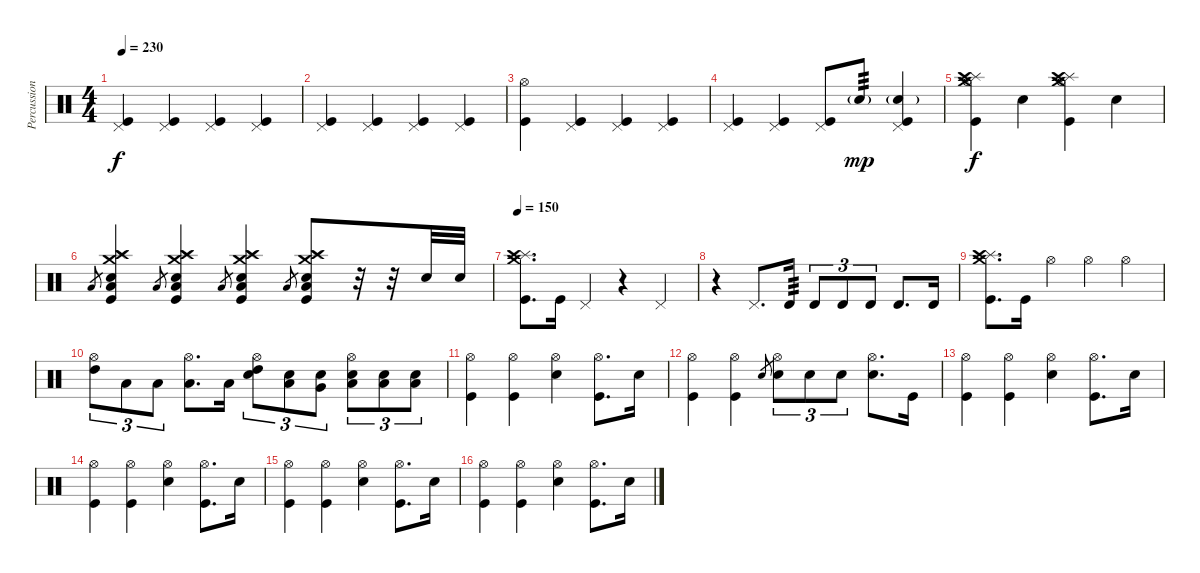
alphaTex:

\track ("Percussion" "Percussion") {instrument percussion}
\staff
\articulation defaults
\ts (4 4)
\tempo 230
\clef neutral
\ks c
("Pedal Hi-Hat (hit)" "Kick (hit)").4{dy f} ("Pedal Hi-Hat (hit)" "Kick (hit)").4 ("Pedal Hi-Hat (hit)" "Kick (hit)").4 ("Pedal Hi-Hat (hit)" "Kick (hit)").4 |
("Pedal Hi-Hat (hit)" "Kick (hit)").4 ("Pedal Hi-Hat (hit)" "Kick (hit)").4 ("Pedal Hi-Hat (hit)" "Kick (hit)").4 ("Pedal Hi-Hat (hit)" "Kick (hit)").4 |
("Hi-Hat (open)" "Kick (hit)").4 ("Pedal Hi-Hat (hit)" "Kick (hit)").4 ("Pedal Hi-Hat (hit)" "Kick (hit)").4 ("Pedal Hi-Hat (hit)" "Kick (hit)").4 |
("Pedal Hi-Hat (hit)" "Kick (hit)").4 ("Pedal Hi-Hat (hit)" "Kick (hit)").4 ("Pedal Hi-Hat (hit)" "Kick (hit)").8 "Electric Snare (hit)"{g}.8{tp 3 dy mp} ("Pedal Hi-Hat (hit)" "Electric Snare (hit)"{g} "Kick (hit)").4 |
("Crash medium (hit)" "Splash (hit)" "Crash high (hit)" "Hi-Hat (open)" "Kick (hit)").4{dy f} "Electric Snare (hit)".4 ("Crash medium (hit)" "Splash (hit)" "Crash high (hit)" "Hi-Hat (open)" "Kick (hit)").4 "Electric Snare (hit)".4 |
"Low Tom (hit)".8{gr} ("Crash medium (hit)" "Splash (hit)" "Crash high (hit)" "Electric Snare (hit)" "Low Tom (hit)" "Kick (hit)").4 "Low Tom (hit)".8{gr} ("Crash medium (hit)" "Splash (hit)" "Crash high (hit)" "Electric Snare (hit)" "Low Tom (hit)" "Kick (hit)").4 "Low Tom (hit)".8{gr} ("Crash medium (hit)" "Splash (hit)" "Crash high (hit)" "Electric Snare (hit)" "Low Tom (hit)" "Kick (hit)").4 "Low Tom (hit)".8{gr} ("Crash medium (hit)" "Splash (hit)" "Crash high (hit)" "Electric Snare (hit)" "Low Tom (hit)" "Kick (hit)").8 r.32 r.32 "Electric Snare (hit)".32 "Electric Snare (hit)".32 |
\tempo 150
("Crash medium (hit)" "Splash (hit)" "Crash high (hit)" "Kick (hit)").8{d} "Kick (hit)".16 "Pedal Hi-Hat (hit)".4 r.4 "Pedal Hi-Hat (hit)".4 |
r.4 "Pedal Hi-Hat (hit)".8{d} "Timbale high (hit)".16{tp 3} "Timbale high (hit)".8{tu (3 2)} "Timbale high (hit)".8{tu (3 2)} "Timbale high (hit)".8{tu (3 2)} "Timbale high (hit)".8{d} "Timbale high (hit)".16 |
("Crash medium (hit)" "Splash (hit)" "Crash high (hit)" "Kick (hit)").8{d} "Kick (hit)".16 "Hi-Hat (open)".4 "Hi-Hat (open)".4 "Hi-Hat (open)".4 |
("Hi-Hat (open)" "High Tom (hit)").8{tu (3 2)} "Low Floor Tom (hit)".8{tu (3 2)} "Low Floor Tom (hit)".8{tu (3 2)} ("Hi-Hat (open)" "Low Tom (hit)").8{d} "Low Tom (hit)".16 ("Hi-Hat (open)" "High Tom (hit)" "Electric Snare (hit)").8{tu (3 2)} ("Low Tom (hit)" "Electric Snare (hit)").8{tu (3 2)} ("Very Low Tom (hit)" "Electric Snare (hit)").8{tu (3 2)} ("Hi-Hat (open)" "Low Floor Tom (hit)" "Electric Snare (hit)").8{tu (3 2)} ("Low Floor Tom (hit)" "Electric Snare (hit)").8{tu (3 2)} ("Low Floor Tom (hit)" "Electric Snare (hit)").8{tu (3 2)} |
("Hi-Hat (open)" "Kick (hit)").4 ("Hi-Hat (open)" "Kick (hit)").4 ("Hi-Hat (open)" "Electric Snare (hit)").4 ("Hi-Hat (open)" "Kick (hit)").8{d} "Electric Snare (hit)".16 |
("Hi-Hat (open)" "Kick (hit)").4 ("Hi-Hat (open)" "Kick (hit)").4 "Electric Snare (hit)".8{gr} ("Hi-Hat (open)" "Electric Snare (hit)").8{tu (3 2)} "Electric Snare (hit)".8{tu (3 2)} "Electric Snare (hit)".8{tu (3 2)} ("Hi-Hat (open)" "Electric Snare (hit)").8{d} "Kick (hit)".16 |
("Hi-Hat (open)" "Kick (hit)").4 ("Hi-Hat (open)" "Kick (hit)").4 ("Hi-Hat (open)" "Electric Snare (hit)").4 ("Hi-Hat (open)" "Kick (hit)").8{d} "Electric Snare (hit)".16 |
("Hi-Hat (open)" "Kick (hit)").4 ("Hi-Hat (open)" "Kick (hit)").4 ("Hi-Hat (open)" "Electric Snare (hit)").4 ("Hi-Hat (open)" "Kick (hit)").8{d} "Electric Snare (hit)".16 |
("Hi-Hat (open)" "Kick (hit)").4 ("Hi-Hat (open)" "Kick (hit)").4 ("Hi-Hat (open)" "Electric Snare (hit)").4 ("Hi-Hat (open)" "Kick (hit)").8{d} "Electric Snare (hit)".16 |
("Hi-Hat (open)" "Kick (hit)").4 ("Hi-Hat (open)" "Kick (hit)").4 ("Hi-Hat (open)" "Electric Snare (hit)").4 ("Hi-Hat (open)" "Kick (hit)").8{d} "Electric Snare (hit)".16
